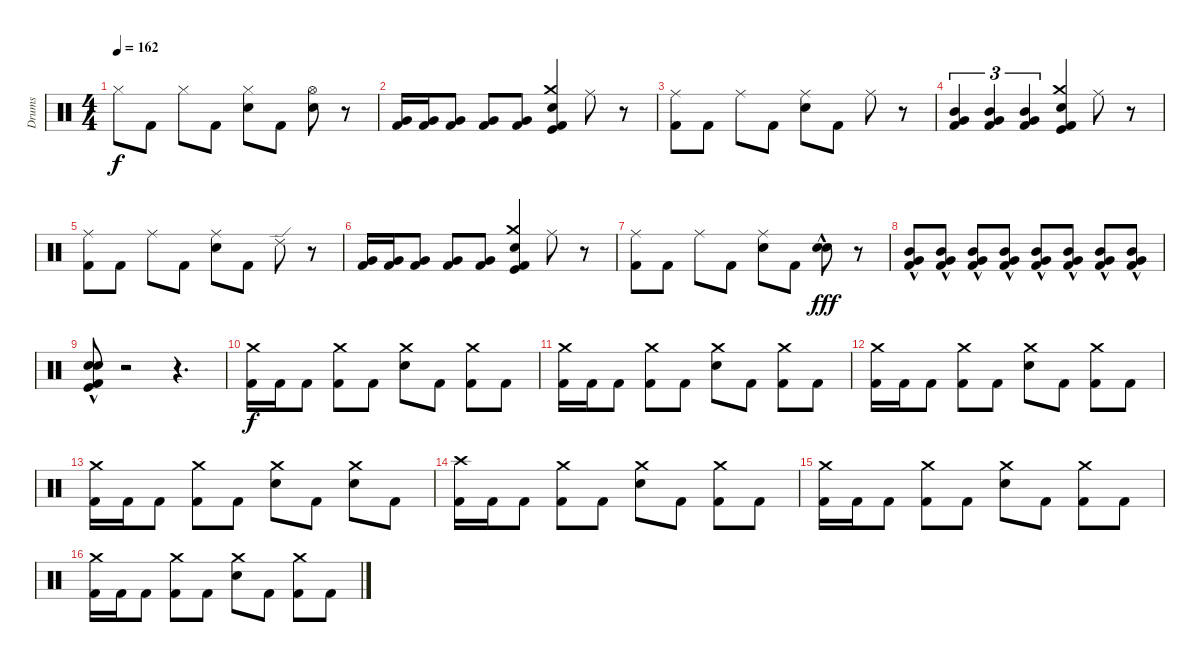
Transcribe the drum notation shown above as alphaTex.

\track ("Drums" "Drums") {instrument percussion}
\staff {score}
\articulation defaults
\ts (4 4)
\tempo 162
\clef neutral
\ks c "Hi-Hat (closed)".8{dy f} "Kick (hit) 2".8 "Hi-Hat (closed)".8 "Kick (hit) 2".8
("Hi-Hat (closed)" "Electric Snare (hit)").8 "Kick (hit) 2".8 ("Hi-Hat (open)" "Electric Snare (hit)").8 r.8 |
("Very Low Tom (hit)" "Kick (hit) 2").16 ("Very Low Tom (hit)" "Kick (hit) 2").16 ("Very Low Tom (hit)" "Kick (hit) 2").8 ("Very Low Tom (hit)" "Kick (hit) 2").8 ("Very Low Tom (hit)" "Kick (hit) 2").8 ("Crash medium (hit)" "Electric Snare (hit)" "Kick (hit)" "Kick (hit) 2").4 "Ride (middle)".8 r.8 |
("Ride (middle)" "Kick (hit) 2").8 "Kick (hit) 2".8 "Ride (middle)".8 "Kick (hit) 2".8 ("Ride (middle)" "Electric Snare (hit)").8 "Kick (hit) 2".8 "Ride (middle)".8 r.8 |
("Mid Tom (hit)" "Very Low Tom (hit)" "Kick (hit) 2").4{tu (3 2)} ("Mid Tom (hit)" "Very Low Tom (hit)" "Kick (hit) 2").4{tu (3 2)} ("Mid Tom (hit)" "Very Low Tom (hit)" "Kick (hit) 2").4{tu (3 2)} ("Crash medium (hit)" "Electric Snare (hit)" "Kick (hit)" "Kick (hit) 2").4 "Ride (middle)".8 r.8 |
("Ride (middle)" "Kick (hit) 2").8 "Kick (hit) 2".8 "Ride (middle)".8 "Kick (hit) 2".8 ("Ride (middle)" "Electric Snare (hit)").8 "Kick (hit) 2".8 "Ride (edge) 2".8 r.8 |
("Very Low Tom (hit)" "Kick (hit) 2").16 ("Very Low Tom (hit)" "Kick (hit) 2").16 ("Very Low Tom (hit)" "Kick (hit) 2").8 ("Very Low Tom (hit)" "Kick (hit) 2").8 ("Very Low Tom (hit)" "Kick (hit) 2").8 ("Crash medium (hit)" "Electric Snare (hit)" "Kick (hit)" "Kick (hit) 2").4 "Ride (middle)".8 r.8 |
("Ride (middle)" "Kick (hit) 2").8 "Kick (hit) 2".8 "Ride (middle)".8 "Kick (hit) 2".8 ("Ride (middle)" "Electric Snare (hit)").8 "Kick (hit) 2".8 ("Electric Snare (hit)"{hac} "Electric Snare (hit)"{hac}).8{dy fff} r.8 |
("Mid Tom (hit)" "Very Low Tom (hit)"{hac} "Kick (hit) 2").8 ("Mid Tom (hit)" "Very Low Tom (hit)"{hac} "Kick (hit) 2").8 ("Mid Tom (hit)" "Very Low Tom (hit)"{hac} "Kick (hit) 2").8 ("Mid Tom (hit)" "Very Low Tom (hit)"{hac} "Kick (hit) 2").8 ("Mid Tom (hit)" "Very Low Tom (hit)"{hac} "Kick (hit) 2").8 ("Mid Tom (hit)" "Very Low Tom (hit)"{hac} "Kick (hit) 2").8 ("Mid Tom (hit)" "Very Low Tom (hit)"{hac} "Kick (hit) 2").8 ("Mid Tom (hit)" "Very Low Tom (hit)"{hac} "Kick (hit) 2").8 |
("Electric Snare (hit)"{hac} "Electric Snare (hit)"{hac} "Kick (hit)" "Kick (hit) 2").8 r.2 r.4{d} |
("Crash medium (hit)" "Kick (hit) 2").16{dy f} "Kick (hit) 2".16 "Kick (hit) 2".8 ("Crash medium (hit)" "Kick (hit) 2").8 "Kick (hit) 2".8 ("Crash medium (hit)" "Electric Snare (hit)").8 "Kick (hit) 2".8 ("Crash medium (hit)" "Kick (hit) 2").8 "Kick (hit) 2".8 |
("Crash medium (hit)" "Kick (hit) 2").16 "Kick (hit) 2".16 "Kick (hit) 2".8 ("Crash medium (hit)" "Kick (hit) 2").8 "Kick (hit) 2".8 ("Crash medium (hit)" "Electric Snare (hit)").8 "Kick (hit) 2".8 ("Crash medium (hit)" "Kick (hit) 2").8 "Kick (hit) 2".8 |
("Crash medium (hit)" "Kick (hit) 2").16 "Kick (hit) 2".16 "Kick (hit) 2".8 ("Crash medium (hit)" "Kick (hit) 2").8 "Kick (hit) 2".8 ("Crash medium (hit)" "Electric Snare (hit)").8 "Kick (hit) 2".8 ("Crash medium (hit)" "Kick (hit) 2").8 "Kick (hit) 2".8 |
("Crash medium (hit)" "Kick (hit) 2").16 "Kick (hit) 2".16 "Kick (hit) 2".8 ("Crash medium (hit)" "Kick (hit) 2").8 "Kick (hit) 2".8 ("Crash medium (hit)" "Electric Snare (hit)").8 "Kick (hit) 2".8 ("Crash medium (hit)" "Electric Snare (hit)").8 "Kick (hit) 2".8 |
("Crash high (hit)" "Kick (hit) 2").16 "Kick (hit) 2".16 "Kick (hit) 2".8 ("Crash medium (hit)" "Kick (hit) 2").8 "Kick (hit) 2".8 ("Crash medium (hit)" "Electric Snare (hit)").8 "Kick (hit) 2".8 ("Crash medium (hit)" "Kick (hit) 2").8 "Kick (hit) 2".8 |
("Crash medium (hit)" "Kick (hit) 2").16 "Kick (hit) 2".16 "Kick (hit) 2".8 ("Crash medium (hit)" "Kick (hit) 2").8 "Kick (hit) 2".8 ("Crash medium (hit)" "Electric Snare (hit)").8 "Kick (hit) 2".8 ("Crash medium (hit)" "Kick (hit) 2").8 "Kick (hit) 2".8 |
("Crash medium (hit)" "Kick (hit) 2").16 "Kick (hit) 2".16 "Kick (hit) 2".8 ("Crash medium (hit)" "Kick (hit) 2").8 "Kick (hit) 2".8 ("Crash medium (hit)" "Electric Snare (hit)").8 "Kick (hit) 2".8 ("Crash medium (hit)" "Kick (hit) 2").8 "Kick (hit) 2".8
